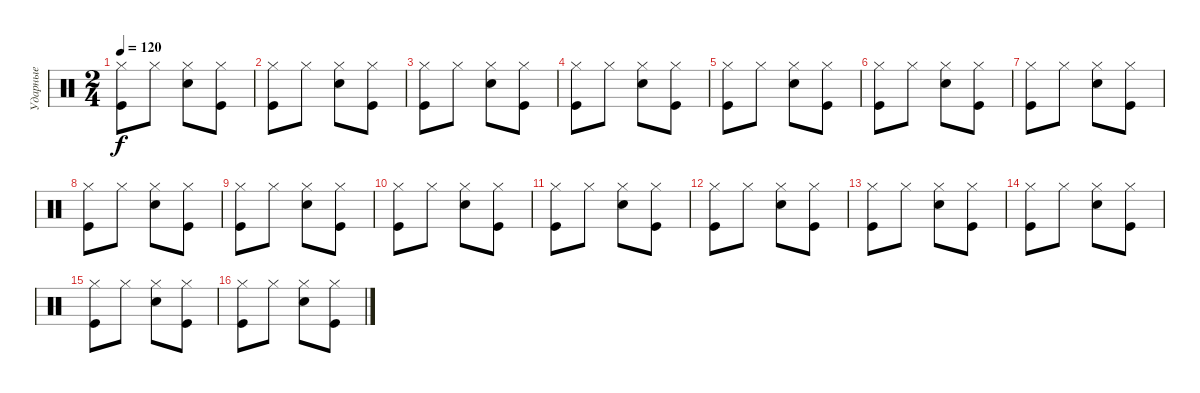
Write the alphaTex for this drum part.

\track ("Ударные" "Ударные") {instrument percussion}
\staff {score}
\articulation defaults
\ts (2 4)
\tempo 120
\clef neutral
\ks c
("Kick (hit)" "Hi-Hat (closed)").8{dy f} "Hi-Hat (closed)".8 ("Snare (hit) 2" "Hi-Hat (closed)").8 ("Kick (hit)" "Hi-Hat (closed)").8 |
("Kick (hit)" "Hi-Hat (closed)").8 "Hi-Hat (closed)".8 ("Snare (hit) 2" "Hi-Hat (closed)").8 ("Kick (hit)" "Hi-Hat (closed)").8 |
("Kick (hit)" "Hi-Hat (closed)").8 "Hi-Hat (closed)".8 ("Snare (hit) 2" "Hi-Hat (closed)").8 ("Kick (hit)" "Hi-Hat (closed)").8 |
("Kick (hit)" "Hi-Hat (closed)").8 "Hi-Hat (closed)".8 ("Snare (hit) 2" "Hi-Hat (closed)").8 ("Kick (hit)" "Hi-Hat (closed)").8 |
("Kick (hit)" "Hi-Hat (closed)").8 "Hi-Hat (closed)".8 ("Snare (hit) 2" "Hi-Hat (closed)").8 ("Kick (hit)" "Hi-Hat (closed)").8 |
("Kick (hit)" "Hi-Hat (closed)").8 "Hi-Hat (closed)".8 ("Snare (hit) 2" "Hi-Hat (closed)").8 ("Kick (hit)" "Hi-Hat (closed)").8 |
("Kick (hit)" "Hi-Hat (closed)").8 "Hi-Hat (closed)".8 ("Snare (hit) 2" "Hi-Hat (closed)").8 ("Kick (hit)" "Hi-Hat (closed)").8 |
("Kick (hit)" "Hi-Hat (closed)").8 "Hi-Hat (closed)".8 ("Snare (hit) 2" "Hi-Hat (closed)").8 ("Kick (hit)" "Hi-Hat (closed)").8 |
("Kick (hit)" "Hi-Hat (closed)").8 "Hi-Hat (closed)".8 ("Snare (hit) 2" "Hi-Hat (closed)").8 ("Kick (hit)" "Hi-Hat (closed)").8 |
("Kick (hit)" "Hi-Hat (closed)").8 "Hi-Hat (closed)".8 ("Snare (hit) 2" "Hi-Hat (closed)").8 ("Kick (hit)" "Hi-Hat (closed)").8 |
("Kick (hit)" "Hi-Hat (closed)").8 "Hi-Hat (closed)".8 ("Snare (hit) 2" "Hi-Hat (closed)").8 ("Kick (hit)" "Hi-Hat (closed)").8 |
("Kick (hit)" "Hi-Hat (closed)").8 "Hi-Hat (closed)".8 ("Snare (hit) 2" "Hi-Hat (closed)").8 ("Kick (hit)" "Hi-Hat (closed)").8 |
("Kick (hit)" "Hi-Hat (closed)").8 "Hi-Hat (closed)".8 ("Snare (hit) 2" "Hi-Hat (closed)").8 ("Kick (hit)" "Hi-Hat (closed)").8 |
("Kick (hit)" "Hi-Hat (closed)").8 "Hi-Hat (closed)".8 ("Snare (hit) 2" "Hi-Hat (closed)").8 ("Kick (hit)" "Hi-Hat (closed)").8 |
("Kick (hit)" "Hi-Hat (closed)").8 "Hi-Hat (closed)".8 ("Snare (hit) 2" "Hi-Hat (closed)").8 ("Kick (hit)" "Hi-Hat (closed)").8 |
("Kick (hit)" "Hi-Hat (closed)").8 "Hi-Hat (closed)".8 ("Snare (hit) 2" "Hi-Hat (closed)").8 ("Kick (hit)" "Hi-Hat (closed)").8
